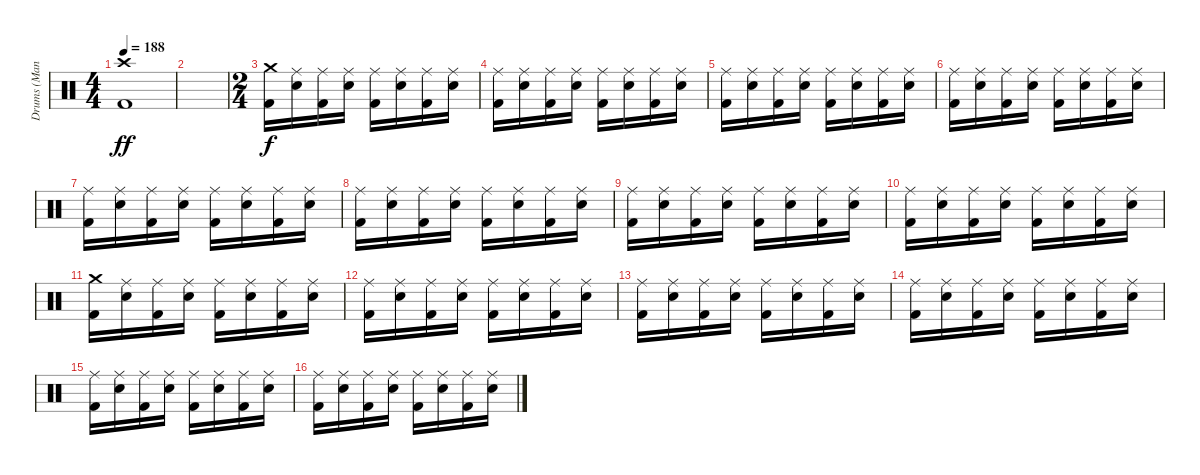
\track ("Drums (Manheim)" "Drums (Man") {instrument percussion}
\staff {score}
\articulation defaults
\ts (4 4)
\tempo 188
\clef neutral
\ks c
("Crash high (hit)" "Kick (hit) 2").1{dy ff} |
|
\ts (2 4)
("Crash medium (hit)" "Kick (hit) 2").16{dy f} ("Ride (middle)" "Electric Snare (hit)").16 ("Ride (middle)" "Kick (hit) 2").16 ("Ride (middle)" "Electric Snare (hit)").16 ("Ride (middle)" "Kick (hit) 2").16 ("Ride (middle)" "Electric Snare (hit)").16 ("Ride (middle)" "Kick (hit) 2").16 ("Ride (middle)" "Electric Snare (hit)").16 |
("Ride (middle)" "Kick (hit) 2").16 ("Ride (middle)" "Electric Snare (hit)").16 ("Ride (middle)" "Kick (hit) 2").16 ("Ride (middle)" "Electric Snare (hit)").16 ("Ride (middle)" "Kick (hit) 2").16 ("Ride (middle)" "Electric Snare (hit)").16 ("Ride (middle)" "Kick (hit) 2").16 ("Ride (middle)" "Electric Snare (hit)").16 |
("Ride (middle)" "Kick (hit) 2").16 ("Ride (middle)" "Electric Snare (hit)").16 ("Ride (middle)" "Kick (hit) 2").16 ("Ride (middle)" "Electric Snare (hit)").16 ("Ride (middle)" "Kick (hit) 2").16 ("Ride (middle)" "Electric Snare (hit)").16 ("Ride (middle)" "Kick (hit) 2").16 ("Ride (middle)" "Electric Snare (hit)").16 |
("Ride (middle)" "Kick (hit) 2").16 ("Ride (middle)" "Electric Snare (hit)").16 ("Ride (middle)" "Kick (hit) 2").16 ("Ride (middle)" "Electric Snare (hit)").16 ("Ride (middle)" "Kick (hit) 2").16 ("Ride (middle)" "Electric Snare (hit)").16 ("Ride (middle)" "Kick (hit) 2").16 ("Ride (middle)" "Electric Snare (hit)").16 |
("Ride (middle)" "Kick (hit) 2").16 ("Ride (middle)" "Electric Snare (hit)").16 ("Ride (middle)" "Kick (hit) 2").16 ("Ride (middle)" "Electric Snare (hit)").16 ("Ride (middle)" "Kick (hit) 2").16 ("Ride (middle)" "Electric Snare (hit)").16 ("Ride (middle)" "Kick (hit) 2").16 ("Ride (middle)" "Electric Snare (hit)").16 |
("Ride (middle)" "Kick (hit) 2").16 ("Ride (middle)" "Electric Snare (hit)").16 ("Ride (middle)" "Kick (hit) 2").16 ("Ride (middle)" "Electric Snare (hit)").16 ("Ride (middle)" "Kick (hit) 2").16 ("Ride (middle)" "Electric Snare (hit)").16 ("Ride (middle)" "Kick (hit) 2").16 ("Ride (middle)" "Electric Snare (hit)").16 |
("Ride (middle)" "Kick (hit) 2").16 ("Ride (middle)" "Electric Snare (hit)").16 ("Ride (middle)" "Kick (hit) 2").16 ("Ride (middle)" "Electric Snare (hit)").16 ("Ride (middle)" "Kick (hit) 2").16 ("Ride (middle)" "Electric Snare (hit)").16 ("Ride (middle)" "Kick (hit) 2").16 ("Ride (middle)" "Electric Snare (hit)").16 |
("Ride (middle)" "Kick (hit) 2").16 ("Ride (middle)" "Electric Snare (hit)").16 ("Ride (middle)" "Kick (hit) 2").16 ("Ride (middle)" "Electric Snare (hit)").16 ("Ride (middle)" "Kick (hit) 2").16 ("Ride (middle)" "Electric Snare (hit)").16 ("Ride (middle)" "Kick (hit) 2").16 ("Ride (middle)" "Electric Snare (hit)").16 |
("Crash medium (hit)" "Kick (hit) 2").16 ("Ride (middle)" "Electric Snare (hit)").16 ("Ride (middle)" "Kick (hit) 2").16 ("Ride (middle)" "Electric Snare (hit)").16 ("Ride (middle)" "Kick (hit) 2").16 ("Ride (middle)" "Electric Snare (hit)").16 ("Ride (middle)" "Kick (hit) 2").16 ("Ride (middle)" "Electric Snare (hit)").16 |
("Ride (middle)" "Kick (hit) 2").16 ("Ride (middle)" "Electric Snare (hit)").16 ("Ride (middle)" "Kick (hit) 2").16 ("Ride (middle)" "Electric Snare (hit)").16 ("Ride (middle)" "Kick (hit) 2").16 ("Ride (middle)" "Electric Snare (hit)").16 ("Ride (middle)" "Kick (hit) 2").16 ("Ride (middle)" "Electric Snare (hit)").16 |
("Ride (middle)" "Kick (hit) 2").16 ("Ride (middle)" "Electric Snare (hit)").16 ("Ride (middle)" "Kick (hit) 2").16 ("Ride (middle)" "Electric Snare (hit)").16 ("Ride (middle)" "Kick (hit) 2").16 ("Ride (middle)" "Electric Snare (hit)").16 ("Ride (middle)" "Kick (hit) 2").16 ("Ride (middle)" "Electric Snare (hit)").16 |
("Ride (middle)" "Kick (hit) 2").16 ("Ride (middle)" "Electric Snare (hit)").16 ("Ride (middle)" "Kick (hit) 2").16 ("Ride (middle)" "Electric Snare (hit)").16 ("Ride (middle)" "Kick (hit) 2").16 ("Ride (middle)" "Electric Snare (hit)").16 ("Ride (middle)" "Kick (hit) 2").16 ("Ride (middle)" "Electric Snare (hit)").16 |
("Ride (middle)" "Kick (hit) 2").16 ("Ride (middle)" "Electric Snare (hit)").16 ("Ride (middle)" "Kick (hit) 2").16 ("Ride (middle)" "Electric Snare (hit)").16 ("Ride (middle)" "Kick (hit) 2").16 ("Ride (middle)" "Electric Snare (hit)").16 ("Ride (middle)" "Kick (hit) 2").16 ("Ride (middle)" "Electric Snare (hit)").16 |
("Ride (middle)" "Kick (hit) 2").16 ("Ride (middle)" "Electric Snare (hit)").16 ("Ride (middle)" "Kick (hit) 2").16 ("Ride (middle)" "Electric Snare (hit)").16 ("Ride (middle)" "Kick (hit) 2").16 ("Ride (middle)" "Electric Snare (hit)").16 ("Ride (middle)" "Kick (hit) 2").16 ("Ride (middle)" "Electric Snare (hit)").16
